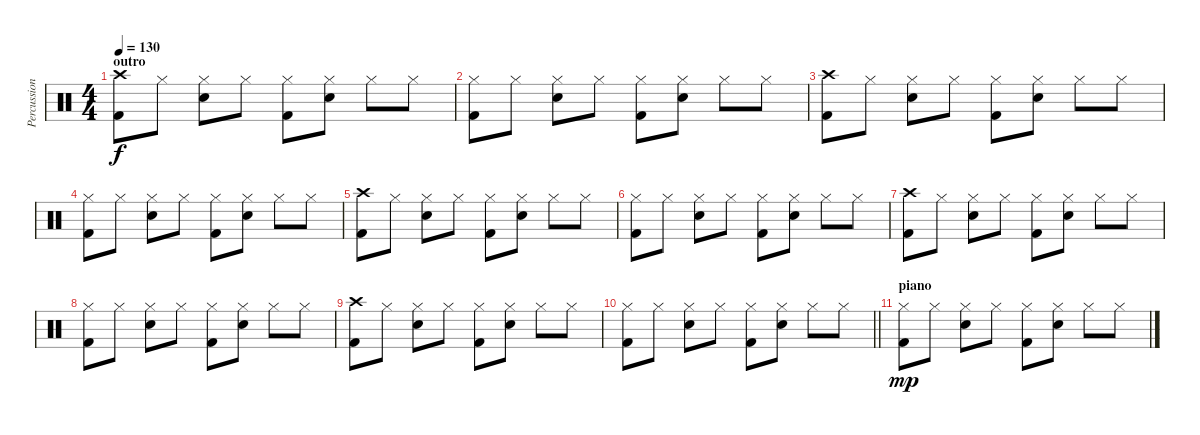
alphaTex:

\track ("Percussion" "Percussion") {instrument percussion}
\staff {score}
\articulation defaults
\ts (4 4)
\section ("" "outro")
\tempo 130
\clef neutral
\ks c
("Crash high (hit)" "Kick (hit) 2").8{dy f} "Hi-Hat (closed)".8 ("Hi-Hat (closed)" "Snare (hit) 2").8 "Hi-Hat (closed)".8 ("Hi-Hat (closed)" "Kick (hit) 2").8 ("Hi-Hat (closed)" "Snare (hit) 2").8 "Hi-Hat (closed)".8 "Hi-Hat (closed)".8 |
("Hi-Hat (closed)" "Kick (hit) 2").8 "Hi-Hat (closed)".8 ("Hi-Hat (closed)" "Snare (hit) 2").8 "Hi-Hat (closed)".8 ("Hi-Hat (closed)" "Kick (hit) 2").8 ("Hi-Hat (closed)" "Snare (hit) 2").8 "Hi-Hat (closed)".8 "Hi-Hat (closed)".8 |
("Crash high (hit)" "Kick (hit) 2").8 "Hi-Hat (closed)".8 ("Hi-Hat (closed)" "Snare (hit) 2").8 "Hi-Hat (closed)".8 ("Hi-Hat (closed)" "Kick (hit) 2").8 ("Hi-Hat (closed)" "Snare (hit) 2").8 "Hi-Hat (closed)".8 "Hi-Hat (closed)".8 |
("Hi-Hat (closed)" "Kick (hit) 2").8 "Hi-Hat (closed)".8 ("Hi-Hat (closed)" "Snare (hit) 2").8 "Hi-Hat (closed)".8 ("Hi-Hat (closed)" "Kick (hit) 2").8 ("Hi-Hat (closed)" "Snare (hit) 2").8 "Hi-Hat (closed)".8 "Hi-Hat (closed)".8 |
("Crash high (hit)" "Kick (hit) 2").8 "Hi-Hat (closed)".8 ("Hi-Hat (closed)" "Snare (hit) 2").8 "Hi-Hat (closed)".8 ("Hi-Hat (closed)" "Kick (hit) 2").8 ("Hi-Hat (closed)" "Snare (hit) 2").8 "Hi-Hat (closed)".8 "Hi-Hat (closed)".8 |
("Hi-Hat (closed)" "Kick (hit) 2").8 "Hi-Hat (closed)".8 ("Hi-Hat (closed)" "Snare (hit) 2").8 "Hi-Hat (closed)".8 ("Hi-Hat (closed)" "Kick (hit) 2").8 ("Hi-Hat (closed)" "Snare (hit) 2").8 "Hi-Hat (closed)".8 "Hi-Hat (closed)".8 |
("Crash high (hit)" "Kick (hit) 2").8 "Hi-Hat (closed)".8 ("Hi-Hat (closed)" "Snare (hit) 2").8 "Hi-Hat (closed)".8 ("Hi-Hat (closed)" "Kick (hit) 2").8 ("Hi-Hat (closed)" "Snare (hit) 2").8 "Hi-Hat (closed)".8 "Hi-Hat (closed)".8 |
("Hi-Hat (closed)" "Kick (hit) 2").8 "Hi-Hat (closed)".8 ("Hi-Hat (closed)" "Snare (hit) 2").8 "Hi-Hat (closed)".8 ("Hi-Hat (closed)" "Kick (hit) 2").8 ("Hi-Hat (closed)" "Snare (hit) 2").8 "Hi-Hat (closed)".8 "Hi-Hat (closed)".8 |
("Crash high (hit)" "Kick (hit) 2").8 "Hi-Hat (closed)".8 ("Hi-Hat (closed)" "Snare (hit) 2").8 "Hi-Hat (closed)".8 ("Hi-Hat (closed)" "Kick (hit) 2").8 ("Hi-Hat (closed)" "Snare (hit) 2").8 "Hi-Hat (closed)".8 "Hi-Hat (closed)".8 |
\barLineRight lightlight
("Hi-Hat (closed)" "Kick (hit) 2").8 "Hi-Hat (closed)".8 ("Hi-Hat (closed)" "Snare (hit) 2").8 "Hi-Hat (closed)".8 ("Hi-Hat (closed)" "Kick (hit) 2").8 ("Hi-Hat (closed)" "Snare (hit) 2").8 "Hi-Hat (closed)".8 "Hi-Hat (closed)".8 |
\section ("" "piano")
("Hi-Hat (closed)" "Kick (hit) 2").8{dy mp} "Hi-Hat (closed)".8 ("Hi-Hat (closed)" "Snare (hit) 2").8 "Hi-Hat (closed)".8 ("Hi-Hat (closed)" "Kick (hit) 2").8 ("Hi-Hat (closed)" "Snare (hit) 2").8 "Hi-Hat (closed)".8 "Hi-Hat (closed)".8
